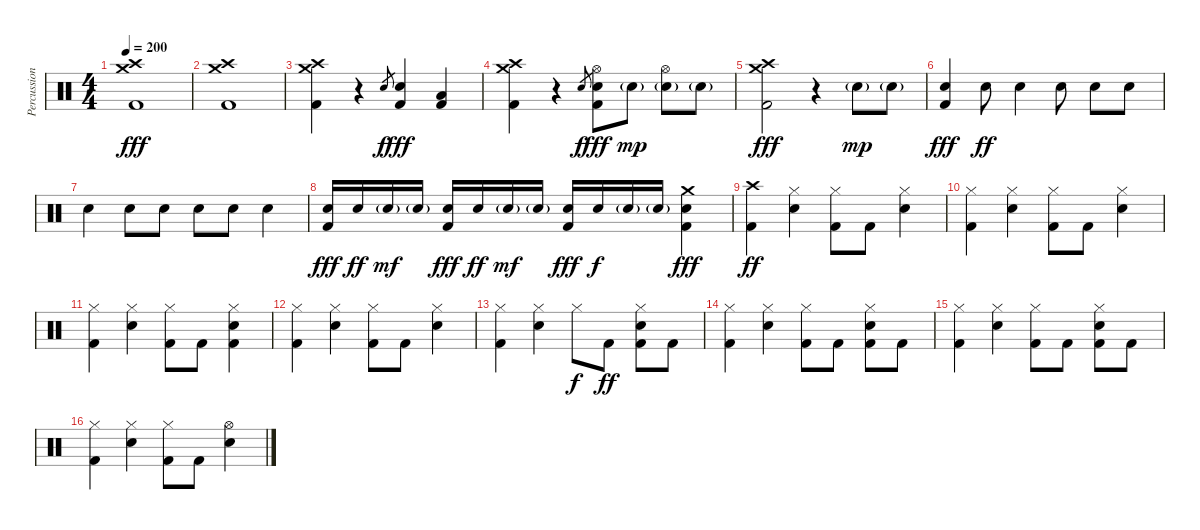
\track ("Percussion" "Percussion") {instrument percussion}
\staff {score}
\articulation defaults
\ts (4 4)
\tempo 200
\clef neutral
\ks c
("Crash high (hit)" "Crash medium (hit)" "Kick (hit) 2").1{dy fff} |
("Crash high (hit)" "Crash medium (hit)" "Kick (hit) 2").1 |
("Crash high (hit)" "Crash medium (hit)" "Kick (hit) 2").4 r.4 "Snare (hit) 2".8{gr dy f} ("Electric Snare (hit)" "Kick (hit) 2").4{dy fff} ("Low Tom (hit)" "Kick (hit) 2").4 |
("Crash high (hit)" "Crash medium (hit)" "Kick (hit) 2").4 r.4 "Snare (hit) 2".8{gr dy f} ("Hi-Hat (open)" "Electric Snare (hit)" "Kick (hit) 2").8{dy fff} "Electric Snare (hit)"{g}.8{dy mp} ("Hi-Hat (open)" "Electric Snare (hit)"{g}).8 "Electric Snare (hit)"{g}.8 |
("Crash high (hit)" "Crash medium (hit)" "Kick (hit) 2").2{dy fff} r.4 "Snare (hit) 2"{g}.8{dy mp} "Snare (hit) 2"{g}.8 |
("Snare (hit) 2" "Kick (hit) 2").4{dy fff} "Snare (hit) 2".8{dy ff} "Snare (hit) 2".4 "Snare (hit) 2".8 "Snare (hit) 2".8 "Snare (hit) 2".8 |
"Snare (hit) 2".4 "Snare (hit) 2".8 "Snare (hit) 2".8 "Snare (hit) 2".8 "Snare (hit) 2".8 "Snare (hit) 2".4 |
("Snare (hit) 2" "Kick (hit) 2").16{dy fff} "Snare (hit) 2".16{dy ff} "Snare (hit) 2"{g}.16{dy mf} "Snare (hit) 2"{g}.16 ("Snare (hit) 2" "Kick (hit) 2").16{dy fff} "Snare (hit) 2".16{dy ff} "Snare (hit) 2"{g}.16{dy mf} "Snare (hit) 2"{g}.16 ("Snare (hit) 2" "Kick (hit) 2").16{dy fff} "Snare (hit) 2".16{dy f} "Snare (hit) 2"{g}.16 "Snare (hit) 2"{g}.16 ("Crash medium (hit)" "Snare (hit) 2" "Kick (hit) 2").4{dy fff} |
("Crash high (hit)" "Kick (hit) 2").4{dy ff} ("Hi-Hat (closed)" "Snare (hit) 2").4 ("Hi-Hat (closed)" "Kick (hit) 2").8 "Kick (hit) 2".8 ("Hi-Hat (closed)" "Snare (hit) 2").4 |
("Hi-Hat (closed)" "Kick (hit) 2").4 ("Hi-Hat (closed)" "Snare (hit) 2").4 ("Hi-Hat (closed)" "Kick (hit) 2").8 "Kick (hit) 2".8 ("Hi-Hat (closed)" "Snare (hit) 2").4 |
("Hi-Hat (closed)" "Kick (hit) 2").4 ("Hi-Hat (closed)" "Snare (hit) 2").4 ("Hi-Hat (closed)" "Kick (hit) 2").8 "Kick (hit) 2".8 ("Hi-Hat (closed)" "Snare (hit) 2" "Kick (hit) 2").4 |
("Hi-Hat (closed)" "Kick (hit) 2").4 ("Hi-Hat (closed)" "Snare (hit) 2").4 ("Hi-Hat (closed)" "Kick (hit) 2").8 "Kick (hit) 2".8 ("Hi-Hat (closed)" "Snare (hit) 2").4 |
("Hi-Hat (closed)" "Kick (hit) 2").4 ("Hi-Hat (closed)" "Snare (hit) 2").4 "Hi-Hat (closed)".8{dy f} "Kick (hit) 2".8{dy ff} ("Hi-Hat (closed)" "Snare (hit) 2" "Kick (hit) 2").8 "Kick (hit) 2".8 |
("Hi-Hat (closed)" "Kick (hit) 2").4 ("Hi-Hat (closed)" "Snare (hit) 2").4 ("Hi-Hat (closed)" "Kick (hit) 2").8 "Kick (hit) 2".8 ("Hi-Hat (closed)" "Snare (hit) 2" "Kick (hit) 2").8 "Kick (hit) 2".8 |
("Hi-Hat (closed)" "Kick (hit) 2").4 ("Hi-Hat (closed)" "Snare (hit) 2").4 ("Hi-Hat (closed)" "Kick (hit) 2").8 "Kick (hit) 2".8 ("Hi-Hat (closed)" "Snare (hit) 2" "Kick (hit) 2").8 "Kick (hit) 2".8 |
("Hi-Hat (closed)" "Kick (hit) 2").4 ("Hi-Hat (closed)" "Snare (hit) 2").4 ("Hi-Hat (closed)" "Kick (hit) 2").8 "Kick (hit) 2".8 ("Hi-Hat (open)" "Snare (hit) 2").4
